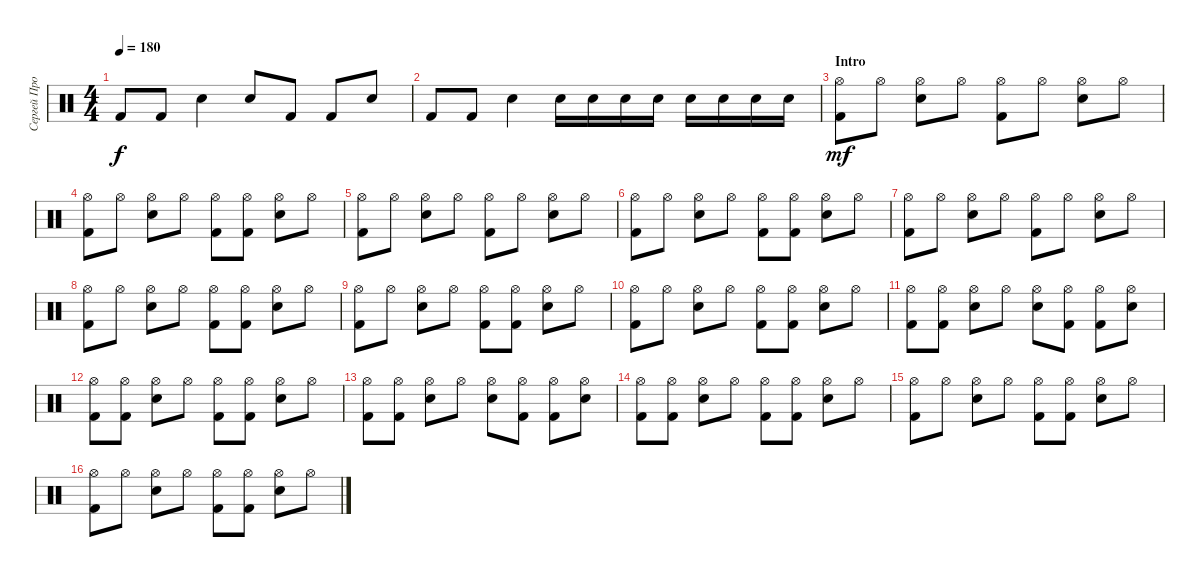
\track ("Сергей Прокофьев" "Сергей Про") {instrument percussion}
\staff {score}
\articulation defaults
\ts (4 4)
\tempo 180
\clef neutral
\ks c "Kick (hit) 2".8{dy f} "Kick (hit) 2".8 "Snare (hit) 2".4 "Snare (hit) 2".8 "Kick (hit) 2".8 "Kick (hit) 2".8 "Snare (hit) 2".8
|
"Kick (hit) 2".8 "Kick (hit) 2".8 "Snare (hit) 2".4 "Snare (hit) 2".16 "Snare (hit) 2".16 "Snare (hit) 2".16 "Snare (hit) 2".16 "Snare (hit) 2".16 "Snare (hit) 2".16 "Snare (hit) 2".16 "Snare (hit) 2".16 |
\section ("" "Intro")
("Hi-Hat (open)" "Kick (hit) 2").8{dy mf} "Hi-Hat (open)".8 ("Hi-Hat (open)" "Snare (hit) 2").8 "Hi-Hat (open)".8 ("Hi-Hat (open)" "Kick (hit) 2").8 "Hi-Hat (open)".8 ("Hi-Hat (open)" "Snare (hit) 2").8 "Hi-Hat (open)".8 |
("Hi-Hat (open)" "Kick (hit) 2").8 "Hi-Hat (open)".8 ("Hi-Hat (open)" "Snare (hit) 2").8 "Hi-Hat (open)".8 ("Hi-Hat (open)" "Kick (hit) 2").8 ("Hi-Hat (open)" "Kick (hit) 2").8 ("Hi-Hat (open)" "Snare (hit) 2").8 "Hi-Hat (open)".8 |
("Hi-Hat (open)" "Kick (hit) 2").8 "Hi-Hat (open)".8 ("Hi-Hat (open)" "Snare (hit) 2").8 "Hi-Hat (open)".8 ("Hi-Hat (open)" "Kick (hit) 2").8 "Hi-Hat (open)".8 ("Hi-Hat (open)" "Snare (hit) 2").8 "Hi-Hat (open)".8 |
("Hi-Hat (open)" "Kick (hit) 2").8 "Hi-Hat (open)".8 ("Hi-Hat (open)" "Snare (hit) 2").8 "Hi-Hat (open)".8 ("Hi-Hat (open)" "Kick (hit) 2").8 ("Hi-Hat (open)" "Kick (hit) 2").8 ("Hi-Hat (open)" "Snare (hit) 2").8 "Hi-Hat (open)".8 |
("Hi-Hat (open)" "Kick (hit) 2").8 "Hi-Hat (open)".8 ("Hi-Hat (open)" "Snare (hit) 2").8 "Hi-Hat (open)".8 ("Hi-Hat (open)" "Kick (hit) 2").8 "Hi-Hat (open)".8 ("Hi-Hat (open)" "Snare (hit) 2").8 "Hi-Hat (open)".8 |
("Hi-Hat (open)" "Kick (hit) 2").8 "Hi-Hat (open)".8 ("Hi-Hat (open)" "Snare (hit) 2").8 "Hi-Hat (open)".8 ("Hi-Hat (open)" "Kick (hit) 2").8 ("Hi-Hat (open)" "Kick (hit) 2").8 ("Hi-Hat (open)" "Snare (hit) 2").8 "Hi-Hat (open)".8 |
("Hi-Hat (open)" "Kick (hit) 2").8 "Hi-Hat (open)".8 ("Hi-Hat (open)" "Snare (hit) 2").8 "Hi-Hat (open)".8 ("Hi-Hat (open)" "Kick (hit) 2").8 ("Hi-Hat (open)" "Kick (hit) 2").8 ("Hi-Hat (open)" "Snare (hit) 2").8 "Hi-Hat (open)".8 |
("Hi-Hat (open)" "Kick (hit) 2").8 "Hi-Hat (open)".8 ("Hi-Hat (open)" "Snare (hit) 2").8 "Hi-Hat (open)".8 ("Hi-Hat (open)" "Kick (hit) 2").8 ("Hi-Hat (open)" "Kick (hit) 2").8 ("Hi-Hat (open)" "Snare (hit) 2").8 "Hi-Hat (open)".8 |
("Hi-Hat (open)" "Kick (hit) 2").8 ("Hi-Hat (open)" "Kick (hit) 2").8 ("Hi-Hat (open)" "Snare (hit) 2").8 "Hi-Hat (open)".8 ("Hi-Hat (open)" "Snare (hit) 2").8 ("Hi-Hat (open)" "Kick (hit) 2").8 ("Hi-Hat (open)" "Kick (hit) 2").8 ("Hi-Hat (open)" "Snare (hit) 2").8 |
("Hi-Hat (open)" "Kick (hit) 2").8 ("Hi-Hat (open)" "Kick (hit) 2").8 ("Hi-Hat (open)" "Snare (hit) 2").8 "Hi-Hat (open)".8 ("Hi-Hat (open)" "Kick (hit) 2").8 ("Hi-Hat (open)" "Kick (hit) 2").8 ("Hi-Hat (open)" "Snare (hit) 2").8 "Hi-Hat (open)".8 |
("Hi-Hat (open)" "Kick (hit) 2").8 ("Hi-Hat (open)" "Kick (hit) 2").8 ("Hi-Hat (open)" "Snare (hit) 2").8 "Hi-Hat (open)".8 ("Hi-Hat (open)" "Snare (hit) 2").8 ("Hi-Hat (open)" "Kick (hit) 2").8 ("Hi-Hat (open)" "Kick (hit) 2").8 ("Hi-Hat (open)" "Snare (hit) 2").8 |
("Hi-Hat (open)" "Kick (hit) 2").8 ("Hi-Hat (open)" "Kick (hit) 2").8 ("Hi-Hat (open)" "Snare (hit) 2").8 "Hi-Hat (open)".8 ("Hi-Hat (open)" "Kick (hit) 2").8 ("Hi-Hat (open)" "Kick (hit) 2").8 ("Hi-Hat (open)" "Snare (hit) 2").8 "Hi-Hat (open)".8 |
("Hi-Hat (open)" "Kick (hit) 2").8 "Hi-Hat (open)".8 ("Hi-Hat (open)" "Snare (hit) 2").8 "Hi-Hat (open)".8 ("Hi-Hat (open)" "Kick (hit) 2").8 ("Hi-Hat (open)" "Kick (hit) 2").8 ("Hi-Hat (open)" "Snare (hit) 2").8 "Hi-Hat (open)".8 |
("Hi-Hat (open)" "Kick (hit) 2").8 "Hi-Hat (open)".8 ("Hi-Hat (open)" "Snare (hit) 2").8 "Hi-Hat (open)".8 ("Hi-Hat (open)" "Kick (hit) 2").8 ("Hi-Hat (open)" "Kick (hit) 2").8 ("Hi-Hat (open)" "Snare (hit) 2").8 "Hi-Hat (open)".8
